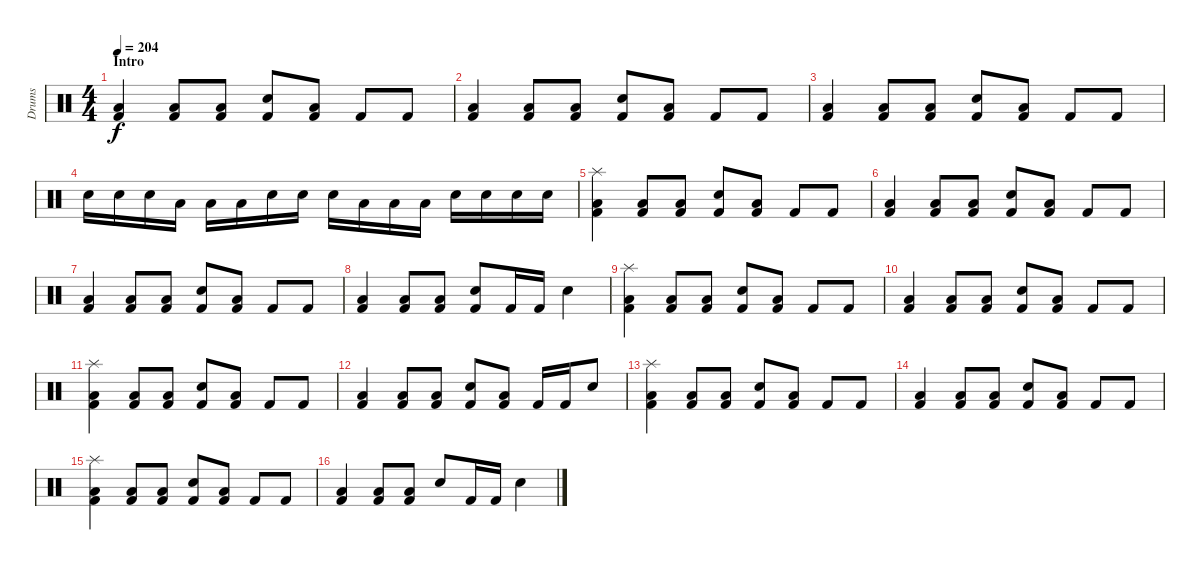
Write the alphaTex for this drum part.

\track ("Drums" "Drums") {instrument percussion}
\staff {score}
\articulation defaults
\ts (4 4)
\section ("" "Intro")
\tempo 204
\clef neutral
\ks c
("Low Floor Tom (hit)" "Kick (hit) 2").4{dy f} ("Low Floor Tom (hit)" "Kick (hit) 2").8 ("Low Floor Tom (hit)" "Kick (hit) 2").8 ("Electric Snare (hit)" "Kick (hit) 2").8 ("Low Floor Tom (hit)" "Kick (hit) 2").8 "Kick (hit) 2".8 "Kick (hit) 2".8 |
("Low Floor Tom (hit)" "Kick (hit) 2").4 ("Low Floor Tom (hit)" "Kick (hit) 2").8 ("Low Floor Tom (hit)" "Kick (hit) 2").8 ("Electric Snare (hit)" "Kick (hit) 2").8 ("Low Floor Tom (hit)" "Kick (hit) 2").8 "Kick (hit) 2".8 "Kick (hit) 2".8 |
("Low Floor Tom (hit)" "Kick (hit) 2").4 ("Low Floor Tom (hit)" "Kick (hit) 2").8 ("Low Floor Tom (hit)" "Kick (hit) 2").8 ("Electric Snare (hit)" "Kick (hit) 2").8 ("Low Floor Tom (hit)" "Kick (hit) 2").8 "Kick (hit) 2".8 "Kick (hit) 2".8 |
"Electric Snare (hit)".16 "Electric Snare (hit)".16 "Electric Snare (hit)".16 "Low Floor Tom (hit)".16 "Low Floor Tom (hit)".16 "Low Floor Tom (hit)".16 "Electric Snare (hit)".16 "Electric Snare (hit)".16 "Electric Snare (hit)".16 "Low Floor Tom (hit)".16 "Low Floor Tom (hit)".16 "Low Floor Tom (hit)".16 "Electric Snare (hit)".16 "Electric Snare (hit)".16 "Electric Snare (hit)".16 "Electric Snare (hit)".16 |
("Splash (hit)" "Low Floor Tom (hit)" "Kick (hit) 2").4 ("Low Floor Tom (hit)" "Kick (hit) 2").8 ("Low Floor Tom (hit)" "Kick (hit) 2").8 ("Electric Snare (hit)" "Kick (hit) 2").8 ("Low Floor Tom (hit)" "Kick (hit) 2").8 "Kick (hit) 2".8 "Kick (hit) 2".8 |
("Low Floor Tom (hit)" "Kick (hit) 2").4 ("Low Floor Tom (hit)" "Kick (hit) 2").8 ("Low Floor Tom (hit)" "Kick (hit) 2").8 ("Electric Snare (hit)" "Kick (hit) 2").8 ("Low Floor Tom (hit)" "Kick (hit) 2").8 "Kick (hit) 2".8 "Kick (hit) 2".8 |
("Low Floor Tom (hit)" "Kick (hit) 2").4 ("Low Floor Tom (hit)" "Kick (hit) 2").8 ("Low Floor Tom (hit)" "Kick (hit) 2").8 ("Electric Snare (hit)" "Kick (hit) 2").8 ("Low Floor Tom (hit)" "Kick (hit) 2").8 "Kick (hit) 2".8 "Kick (hit) 2".8 |
("Low Floor Tom (hit)" "Kick (hit) 2").4 ("Low Floor Tom (hit)" "Kick (hit) 2").8 ("Low Floor Tom (hit)" "Kick (hit) 2").8 ("Electric Snare (hit)" "Kick (hit) 2").8 "Kick (hit) 2".16 "Kick (hit) 2".16 "Electric Snare (hit)".4 |
("Splash (hit)" "Low Floor Tom (hit)" "Kick (hit) 2").4 ("Low Floor Tom (hit)" "Kick (hit) 2").8 ("Low Floor Tom (hit)" "Kick (hit) 2").8 ("Electric Snare (hit)" "Kick (hit) 2").8 ("Low Floor Tom (hit)" "Kick (hit) 2").8 "Kick (hit) 2".8 "Kick (hit) 2".8 |
("Low Floor Tom (hit)" "Kick (hit) 2").4 ("Low Floor Tom (hit)" "Kick (hit) 2").8 ("Low Floor Tom (hit)" "Kick (hit) 2").8 ("Electric Snare (hit)" "Kick (hit) 2").8 ("Low Floor Tom (hit)" "Kick (hit) 2").8 "Kick (hit) 2".8 "Kick (hit) 2".8 |
("Splash (hit)" "Low Floor Tom (hit)" "Kick (hit) 2").4 ("Low Floor Tom (hit)" "Kick (hit) 2").8 ("Low Floor Tom (hit)" "Kick (hit) 2").8 ("Electric Snare (hit)" "Kick (hit) 2").8 ("Low Floor Tom (hit)" "Kick (hit) 2").8 "Kick (hit) 2".8 "Kick (hit) 2".8 |
("Low Floor Tom (hit)" "Kick (hit) 2").4 ("Low Floor Tom (hit)" "Kick (hit) 2").8 ("Low Floor Tom (hit)" "Kick (hit) 2").8 ("Electric Snare (hit)" "Kick (hit) 2").8 ("Low Floor Tom (hit)" "Kick (hit) 2").8 "Kick (hit) 2".16 "Kick (hit) 2".16 "Electric Snare (hit)".8 |
("Splash (hit)" "Low Floor Tom (hit)" "Kick (hit) 2").4 ("Low Floor Tom (hit)" "Kick (hit) 2").8 ("Low Floor Tom (hit)" "Kick (hit) 2").8 ("Electric Snare (hit)" "Kick (hit) 2").8 ("Low Floor Tom (hit)" "Kick (hit) 2").8 "Kick (hit) 2".8 "Kick (hit) 2".8 |
("Low Floor Tom (hit)" "Kick (hit) 2").4 ("Low Floor Tom (hit)" "Kick (hit) 2").8 ("Low Floor Tom (hit)" "Kick (hit) 2").8 ("Electric Snare (hit)" "Kick (hit) 2").8 ("Low Floor Tom (hit)" "Kick (hit) 2").8 "Kick (hit) 2".8 "Kick (hit) 2".8 |
("Splash (hit)" "Low Floor Tom (hit)" "Kick (hit) 2").4 ("Low Floor Tom (hit)" "Kick (hit) 2").8 ("Low Floor Tom (hit)" "Kick (hit) 2").8 ("Electric Snare (hit)" "Kick (hit) 2").8 ("Low Floor Tom (hit)" "Kick (hit) 2").8 "Kick (hit) 2".8 "Kick (hit) 2".8 |
("Low Floor Tom (hit)" "Kick (hit) 2").4 ("Low Floor Tom (hit)" "Kick (hit) 2").8 ("Low Floor Tom (hit)" "Kick (hit) 2").8 "Electric Snare (hit)".8 "Kick (hit) 2".16 "Kick (hit) 2".16 "Electric Snare (hit)".4
